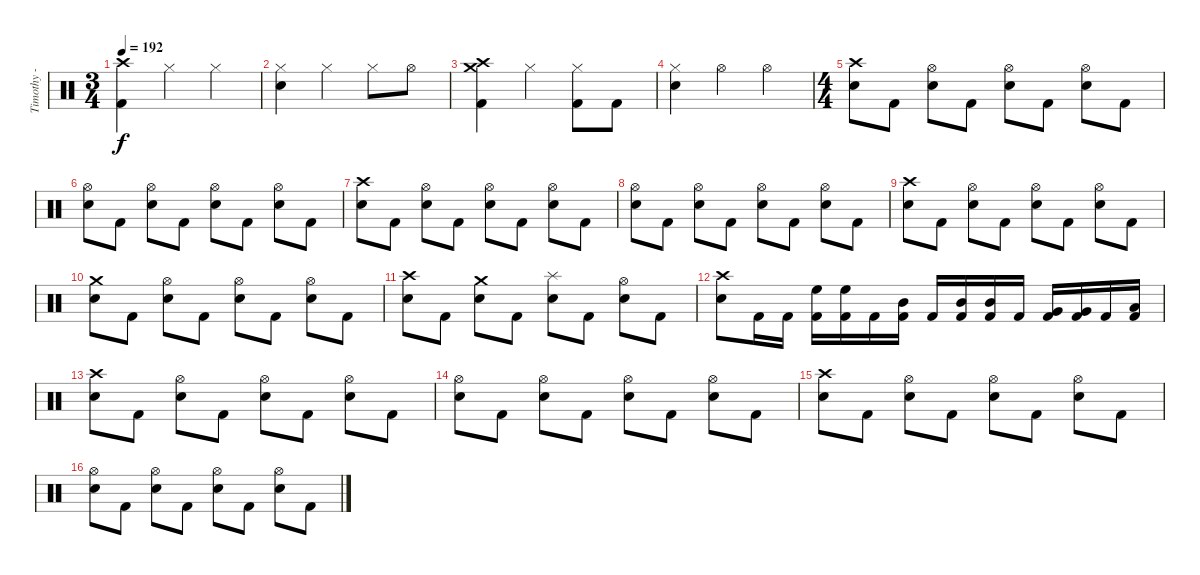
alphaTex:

\track ("Timothy - Drums" "Timothy - ") {instrument percussion}
\staff {score}
\articulation defaults
\ts (3 4)
\tempo 192
\clef neutral
\ks c
("Crash high (hit)" "Kick (hit) 2").4{dy f} "Hi-Hat (closed)".4 "Hi-Hat (closed)".4 |
("Hi-Hat (closed)" "Electric Snare (hit)").4 "Hi-Hat (closed)".4 "Hi-Hat (closed)".8 "Hi-Hat (open)".8 |
("Crash high (hit)" "Crash medium (hit)" "Kick (hit) 2").4 "Hi-Hat (closed)".4 ("Hi-Hat (closed)" "Kick (hit) 2").8 "Kick (hit) 2".8 |
("Hi-Hat (closed)" "Electric Snare (hit)").4 "Hi-Hat (open)".4 "Hi-Hat (open)".4 |
\ts (4 4)
("Crash high (hit)" "Electric Snare (hit)").8 "Kick (hit) 2".8 ("Hi-Hat (open)" "Electric Snare (hit)").8 "Kick (hit) 2".8 ("Hi-Hat (open)" "Electric Snare (hit)").8 "Kick (hit) 2".8 ("Hi-Hat (open)" "Electric Snare (hit)").8 "Kick (hit) 2".8 |
("Hi-Hat (open)" "Electric Snare (hit)").8 "Kick (hit) 2".8 ("Hi-Hat (open)" "Electric Snare (hit)").8 "Kick (hit) 2".8 ("Hi-Hat (open)" "Electric Snare (hit)").8 "Kick (hit) 2".8 ("Hi-Hat (open)" "Electric Snare (hit)").8 "Kick (hit) 2".8 |
("Crash high (hit)" "Electric Snare (hit)").8 "Kick (hit) 2".8 ("Hi-Hat (open)" "Electric Snare (hit)").8 "Kick (hit) 2".8 ("Hi-Hat (open)" "Electric Snare (hit)").8 "Kick (hit) 2".8 ("Hi-Hat (open)" "Electric Snare (hit)").8 "Kick (hit) 2".8 |
("Hi-Hat (open)" "Electric Snare (hit)").8 "Kick (hit) 2".8 ("Hi-Hat (open)" "Electric Snare (hit)").8 "Kick (hit) 2".8 ("Hi-Hat (open)" "Electric Snare (hit)").8 "Kick (hit) 2".8 ("Hi-Hat (open)" "Electric Snare (hit)").8 "Kick (hit) 2".8 |
("Crash high (hit)" "Electric Snare (hit)").8 "Kick (hit) 2".8 ("Hi-Hat (open)" "Electric Snare (hit)").8 "Kick (hit) 2".8 ("Hi-Hat (open)" "Electric Snare (hit)").8 "Kick (hit) 2".8 ("Hi-Hat (open)" "Electric Snare (hit)").8 "Kick (hit) 2".8 |
("Crash medium (hit)" "Electric Snare (hit)").8 "Kick (hit) 2".8 ("Hi-Hat (open)" "Electric Snare (hit)").8 "Kick (hit) 2".8 ("Hi-Hat (open)" "Electric Snare (hit)").8 "Kick (hit) 2".8 ("Hi-Hat (open)" "Electric Snare (hit)").8 "Kick (hit) 2".8 |
("Crash high (hit)" "Electric Snare (hit)").8 "Kick (hit) 2".8 ("Crash medium (hit)" "Electric Snare (hit)").8 "Kick (hit) 2".8 ("Splash (hit)" "Electric Snare (hit)").8 "Kick (hit) 2".8 ("Hi-Hat (open)" "Electric Snare (hit)").8 "Kick (hit) 2".8 |
("Crash high (hit)" "Electric Snare (hit)").8 "Kick (hit) 2".16 "Kick (hit) 2".16 ("High Floor Tom (hit)" "Kick (hit) 2").16 ("High Floor Tom (hit)" "Kick (hit) 2").16 "Kick (hit) 2".16 ("Mid Tom (hit)" "Kick (hit) 2").16 "Kick (hit) 2".16 ("Mid Tom (hit)" "Kick (hit) 2").16 ("Mid Tom (hit)" "Kick (hit) 2").16 "Kick (hit) 2".16 ("Very Low Tom (hit)" "Kick (hit) 2").16 ("Very Low Tom (hit)" "Kick (hit) 2").16 "Kick (hit) 2".16 ("Low Floor Tom (hit)" "Kick (hit) 2").16 |
("Crash high (hit)" "Electric Snare (hit)").8 "Kick (hit) 2".8 ("Hi-Hat (open)" "Electric Snare (hit)").8 "Kick (hit) 2".8 ("Hi-Hat (open)" "Electric Snare (hit)").8 "Kick (hit) 2".8 ("Hi-Hat (open)" "Electric Snare (hit)").8 "Kick (hit) 2".8 |
("Hi-Hat (open)" "Electric Snare (hit)").8 "Kick (hit) 2".8 ("Hi-Hat (open)" "Electric Snare (hit)").8 "Kick (hit) 2".8 ("Hi-Hat (open)" "Electric Snare (hit)").8 "Kick (hit) 2".8 ("Hi-Hat (open)" "Electric Snare (hit)").8 "Kick (hit) 2".8 |
("Crash high (hit)" "Electric Snare (hit)").8 "Kick (hit) 2".8 ("Hi-Hat (open)" "Electric Snare (hit)").8 "Kick (hit) 2".8 ("Hi-Hat (open)" "Electric Snare (hit)").8 "Kick (hit) 2".8 ("Hi-Hat (open)" "Electric Snare (hit)").8 "Kick (hit) 2".8 |
("Hi-Hat (open)" "Electric Snare (hit)").8 "Kick (hit) 2".8 ("Hi-Hat (open)" "Electric Snare (hit)").8 "Kick (hit) 2".8 ("Hi-Hat (open)" "Electric Snare (hit)").8 "Kick (hit) 2".8 ("Hi-Hat (open)" "Electric Snare (hit)").8 "Kick (hit) 2".8
